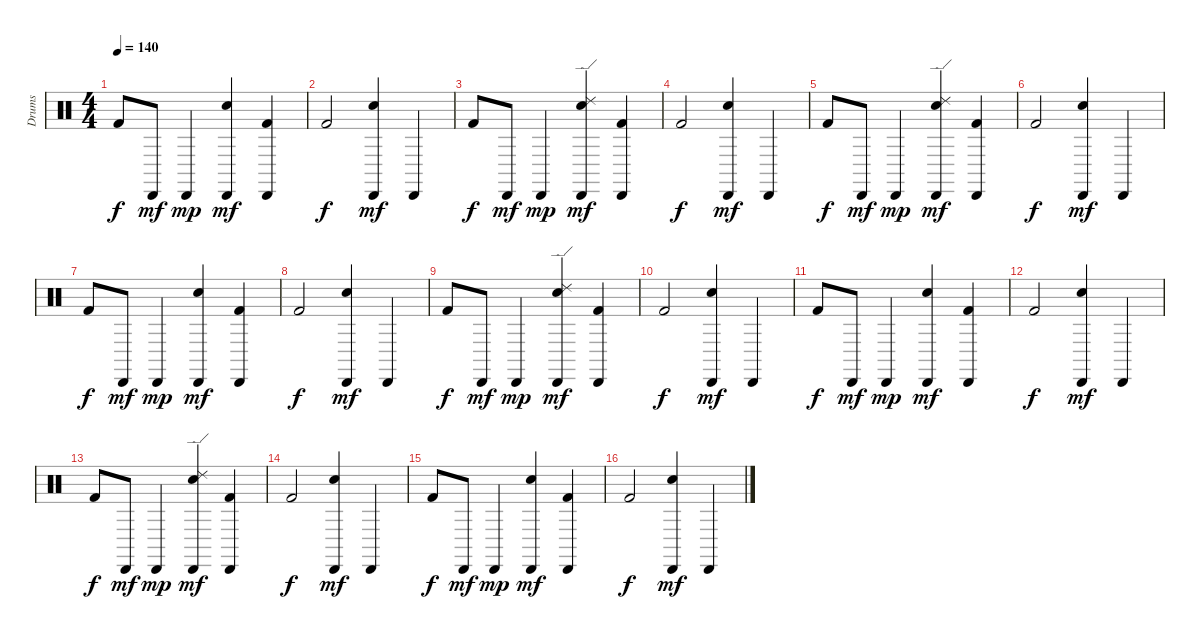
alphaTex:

\track ("Drums" "Drums") {instrument percussion}
\staff {score}
\articulation defaults
\ts (4 4)
\tempo 140
\clef neutral
\ks c "Kick (hit) 2".8{dy f} "Cabasa (hit)".8{dy mf} "Cabasa (hit)".4{dy mp}
("Snare (hit) 2" "Cabasa (hit)").4{dy mf} ("Kick (hit) 2" "Cabasa (hit)").4 |
"Kick (hit) 2".2{dy f} ("Snare (hit) 2" "Cabasa (hit)").4{dy mf} "Cabasa (hit)".4 |
"Kick (hit) 2".8{dy f} "Cabasa (hit)".8{dy mf} "Cabasa (hit)".4{dy mp} ("Snare (hit) 2" "Cabasa (hit)" "Ride (edge) 2").4{dy mf} ("Kick (hit) 2" "Cabasa (hit)").4 |
"Kick (hit) 2".2{dy f} ("Snare (hit) 2" "Cabasa (hit)").4{dy mf} "Cabasa (hit)".4 |
"Kick (hit) 2".8{dy f} "Cabasa (hit)".8{dy mf} "Cabasa (hit)".4{dy mp} ("Snare (hit) 2" "Cabasa (hit)" "Ride (edge) 2").4{dy mf} ("Kick (hit) 2" "Cabasa (hit)").4 |
"Kick (hit) 2".2{dy f} ("Snare (hit) 2" "Cabasa (hit)").4{dy mf} "Cabasa (hit)".4 |
"Kick (hit) 2".8{dy f} "Cabasa (hit)".8{dy mf} "Cabasa (hit)".4{dy mp} ("Snare (hit) 2" "Cabasa (hit)").4{dy mf} ("Kick (hit) 2" "Cabasa (hit)").4 |
"Kick (hit) 2".2{dy f} ("Snare (hit) 2" "Cabasa (hit)").4{dy mf} "Cabasa (hit)".4 |
"Kick (hit) 2".8{dy f} "Cabasa (hit)".8{dy mf} "Cabasa (hit)".4{dy mp} ("Snare (hit) 2" "Cabasa (hit)" "Ride (edge) 2").4{dy mf} ("Kick (hit) 2" "Cabasa (hit)").4 |
"Kick (hit) 2".2{dy f} ("Snare (hit) 2" "Cabasa (hit)").4{dy mf} "Cabasa (hit)".4 |
"Kick (hit) 2".8{dy f} "Cabasa (hit)".8{dy mf} "Cabasa (hit)".4{dy mp} ("Snare (hit) 2" "Cabasa (hit)").4{dy mf} ("Kick (hit) 2" "Cabasa (hit)").4 |
"Kick (hit) 2".2{dy f} ("Snare (hit) 2" "Cabasa (hit)").4{dy mf} "Cabasa (hit)".4 |
"Kick (hit) 2".8{dy f} "Cabasa (hit)".8{dy mf} "Cabasa (hit)".4{dy mp} ("Snare (hit) 2" "Cabasa (hit)" "Ride (edge) 2").4{dy mf} ("Kick (hit) 2" "Cabasa (hit)").4 |
"Kick (hit) 2".2{dy f} ("Snare (hit) 2" "Cabasa (hit)").4{dy mf} "Cabasa (hit)".4 |
"Kick (hit) 2".8{dy f} "Cabasa (hit)".8{dy mf} "Cabasa (hit)".4{dy mp} ("Snare (hit) 2" "Cabasa (hit)").4{dy mf} ("Kick (hit) 2" "Cabasa (hit)").4 |
"Kick (hit) 2".2{dy f} ("Snare (hit) 2" "Cabasa (hit)").4{dy mf} "Cabasa (hit)".4
